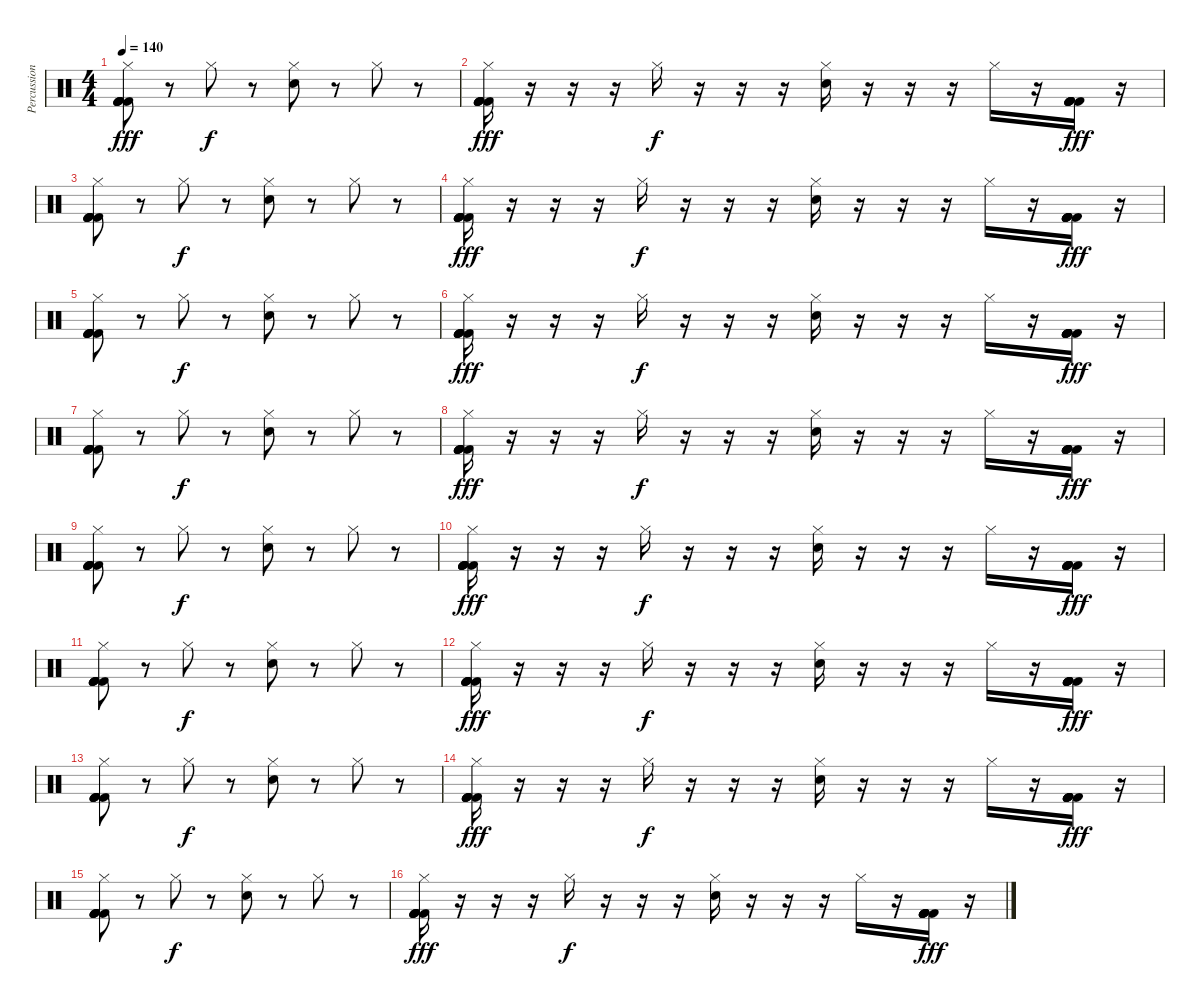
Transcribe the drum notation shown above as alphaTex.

\track ("Percussions" "Percussion") {instrument percussion}
\staff {score}
\articulation defaults
\ts (4 4)
\tempo 140
\clef neutral
\ks c
("Hi-Hat (closed)" "Kick (hit) 2" "Kick (hit) 2" "Kick (hit) 2" "Kick (hit) 2" "Kick (hit) 2").8{dy fff} r.8 "Hi-Hat (closed)".8{dy f} r.8 ("Hi-Hat (closed)" "Snare (hit) 2").8 r.8 "Hi-Hat (closed)".8 r.8 |
("Hi-Hat (closed)" "Kick (hit) 2" "Kick (hit) 2" "Kick (hit) 2" "Kick (hit) 2" "Kick (hit) 2").16{dy fff} r.16 r.16 r.16 "Hi-Hat (closed)".16{dy f} r.16 r.16 r.16 ("Hi-Hat (closed)" "Snare (hit) 2").16 r.16 r.16 r.16 "Hi-Hat (closed)".16 r.16 ("Kick (hit) 2" "Kick (hit) 2" "Kick (hit) 2" "Kick (hit) 2" "Kick (hit) 2" "Kick (hit) 2").16{dy fff} r.16 |
("Hi-Hat (closed)" "Kick (hit) 2" "Kick (hit) 2" "Kick (hit) 2" "Kick (hit) 2" "Kick (hit) 2").8 r.8 "Hi-Hat (closed)".8{dy f} r.8 ("Hi-Hat (closed)" "Snare (hit) 2").8 r.8 "Hi-Hat (closed)".8 r.8 |
("Hi-Hat (closed)" "Kick (hit) 2" "Kick (hit) 2" "Kick (hit) 2" "Kick (hit) 2" "Kick (hit) 2").16{dy fff} r.16 r.16 r.16 "Hi-Hat (closed)".16{dy f} r.16 r.16 r.16 ("Hi-Hat (closed)" "Snare (hit) 2").16 r.16 r.16 r.16 "Hi-Hat (closed)".16 r.16 ("Kick (hit) 2" "Kick (hit) 2" "Kick (hit) 2" "Kick (hit) 2" "Kick (hit) 2" "Kick (hit) 2").16{dy fff} r.16 |
("Hi-Hat (closed)" "Kick (hit) 2" "Kick (hit) 2" "Kick (hit) 2" "Kick (hit) 2" "Kick (hit) 2").8 r.8 "Hi-Hat (closed)".8{dy f} r.8 ("Hi-Hat (closed)" "Snare (hit) 2").8 r.8 "Hi-Hat (closed)".8 r.8 |
("Hi-Hat (closed)" "Kick (hit) 2" "Kick (hit) 2" "Kick (hit) 2" "Kick (hit) 2" "Kick (hit) 2").16{dy fff} r.16 r.16 r.16 "Hi-Hat (closed)".16{dy f} r.16 r.16 r.16 ("Hi-Hat (closed)" "Snare (hit) 2").16 r.16 r.16 r.16 "Hi-Hat (closed)".16 r.16 ("Kick (hit) 2" "Kick (hit) 2" "Kick (hit) 2" "Kick (hit) 2" "Kick (hit) 2" "Kick (hit) 2").16{dy fff} r.16 |
("Hi-Hat (closed)" "Kick (hit) 2" "Kick (hit) 2" "Kick (hit) 2" "Kick (hit) 2" "Kick (hit) 2").8 r.8 "Hi-Hat (closed)".8{dy f} r.8 ("Hi-Hat (closed)" "Snare (hit) 2").8 r.8 "Hi-Hat (closed)".8 r.8 |
("Hi-Hat (closed)" "Kick (hit) 2" "Kick (hit) 2" "Kick (hit) 2" "Kick (hit) 2" "Kick (hit) 2").16{dy fff} r.16 r.16 r.16 "Hi-Hat (closed)".16{dy f} r.16 r.16 r.16 ("Hi-Hat (closed)" "Snare (hit) 2").16 r.16 r.16 r.16 "Hi-Hat (closed)".16 r.16 ("Kick (hit) 2" "Kick (hit) 2" "Kick (hit) 2" "Kick (hit) 2" "Kick (hit) 2" "Kick (hit) 2").16{dy fff} r.16 |
("Hi-Hat (closed)" "Kick (hit) 2" "Kick (hit) 2" "Kick (hit) 2" "Kick (hit) 2" "Kick (hit) 2").8 r.8 "Hi-Hat (closed)".8{dy f} r.8 ("Hi-Hat (closed)" "Snare (hit) 2").8 r.8 "Hi-Hat (closed)".8 r.8 |
("Hi-Hat (closed)" "Kick (hit) 2" "Kick (hit) 2" "Kick (hit) 2" "Kick (hit) 2" "Kick (hit) 2").16{dy fff} r.16 r.16 r.16 "Hi-Hat (closed)".16{dy f} r.16 r.16 r.16 ("Hi-Hat (closed)" "Snare (hit) 2").16 r.16 r.16 r.16 "Hi-Hat (closed)".16 r.16 ("Kick (hit) 2" "Kick (hit) 2" "Kick (hit) 2" "Kick (hit) 2" "Kick (hit) 2" "Kick (hit) 2").16{dy fff} r.16 |
("Hi-Hat (closed)" "Kick (hit) 2" "Kick (hit) 2" "Kick (hit) 2" "Kick (hit) 2" "Kick (hit) 2").8 r.8 "Hi-Hat (closed)".8{dy f} r.8 ("Hi-Hat (closed)" "Snare (hit) 2").8 r.8 "Hi-Hat (closed)".8 r.8 |
("Hi-Hat (closed)" "Kick (hit) 2" "Kick (hit) 2" "Kick (hit) 2" "Kick (hit) 2" "Kick (hit) 2").16{dy fff} r.16 r.16 r.16 "Hi-Hat (closed)".16{dy f} r.16 r.16 r.16 ("Hi-Hat (closed)" "Snare (hit) 2").16 r.16 r.16 r.16 "Hi-Hat (closed)".16 r.16 ("Kick (hit) 2" "Kick (hit) 2" "Kick (hit) 2" "Kick (hit) 2" "Kick (hit) 2" "Kick (hit) 2").16{dy fff} r.16 |
("Hi-Hat (closed)" "Kick (hit) 2" "Kick (hit) 2" "Kick (hit) 2" "Kick (hit) 2" "Kick (hit) 2").8 r.8 "Hi-Hat (closed)".8{dy f} r.8 ("Hi-Hat (closed)" "Snare (hit) 2").8 r.8 "Hi-Hat (closed)".8 r.8 |
("Hi-Hat (closed)" "Kick (hit) 2" "Kick (hit) 2" "Kick (hit) 2" "Kick (hit) 2" "Kick (hit) 2").16{dy fff} r.16 r.16 r.16 "Hi-Hat (closed)".16{dy f} r.16 r.16 r.16 ("Hi-Hat (closed)" "Snare (hit) 2").16 r.16 r.16 r.16 "Hi-Hat (closed)".16 r.16 ("Kick (hit) 2" "Kick (hit) 2" "Kick (hit) 2" "Kick (hit) 2" "Kick (hit) 2" "Kick (hit) 2").16{dy fff} r.16 |
("Hi-Hat (closed)" "Kick (hit) 2" "Kick (hit) 2" "Kick (hit) 2" "Kick (hit) 2" "Kick (hit) 2").8 r.8 "Hi-Hat (closed)".8{dy f} r.8 ("Hi-Hat (closed)" "Snare (hit) 2").8 r.8 "Hi-Hat (closed)".8 r.8 |
("Hi-Hat (closed)" "Kick (hit) 2" "Kick (hit) 2" "Kick (hit) 2" "Kick (hit) 2" "Kick (hit) 2").16{dy fff} r.16 r.16 r.16 "Hi-Hat (closed)".16{dy f} r.16 r.16 r.16 ("Hi-Hat (closed)" "Snare (hit) 2").16 r.16 r.16 r.16 "Hi-Hat (closed)".16 r.16 ("Kick (hit) 2" "Kick (hit) 2" "Kick (hit) 2" "Kick (hit) 2" "Kick (hit) 2" "Kick (hit) 2").16{dy fff} r.16
